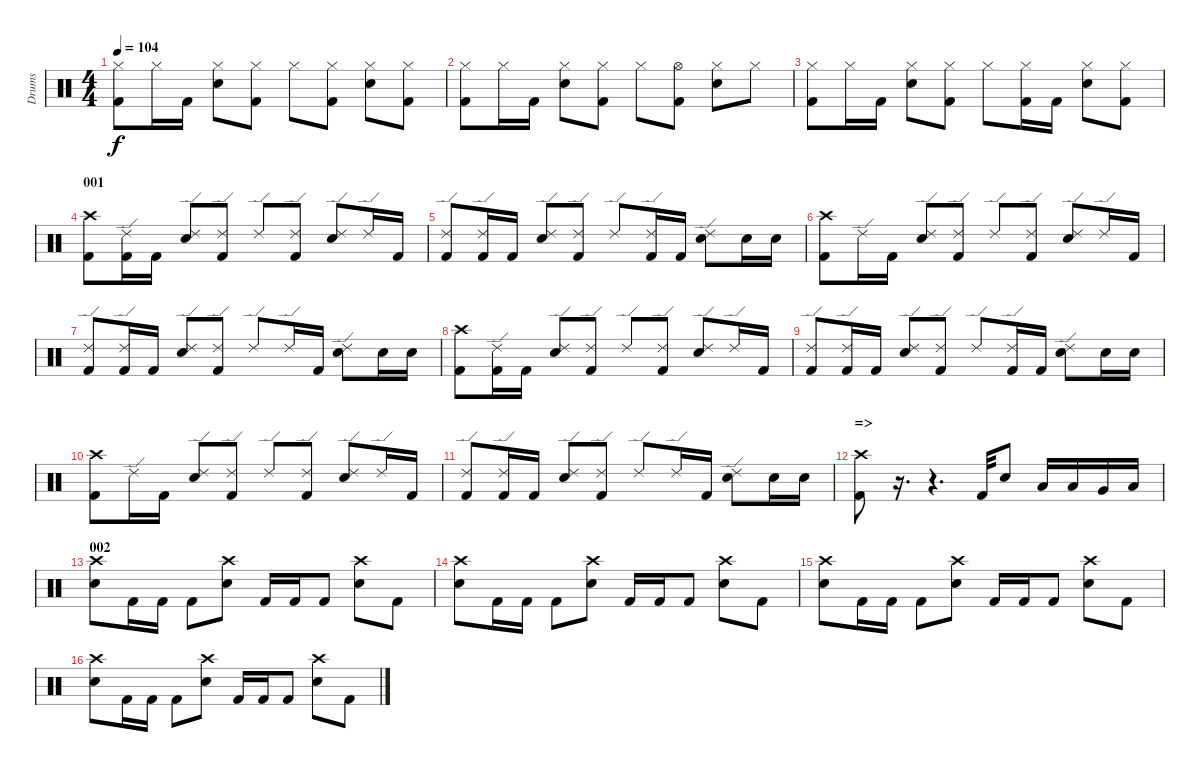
\track ("Drums" "Drums") {instrument percussion}
\staff {score}
\articulation defaults
\ts (4 4)
\tempo 104
\clef neutral
\ks c
("Hi-Hat (closed)" "Kick (hit) 2").8{dy f} "Hi-Hat (closed)".16 "Kick (hit) 2".16 ("Hi-Hat (closed)" "Electric Snare (hit)").8 ("Hi-Hat (closed)" "Kick (hit) 2").8 "Hi-Hat (closed)".8 ("Hi-Hat (closed)" "Kick (hit) 2").8 ("Hi-Hat (closed)" "Electric Snare (hit)").8 ("Hi-Hat (closed)" "Kick (hit) 2").8 |
("Hi-Hat (closed)" "Kick (hit) 2").8 "Hi-Hat (closed)".16 "Kick (hit) 2".16 ("Hi-Hat (closed)" "Electric Snare (hit)").8 ("Hi-Hat (closed)" "Kick (hit) 2").8 "Hi-Hat (closed)".8 ("Hi-Hat (open)" "Kick (hit) 2").8 ("Hi-Hat (closed)" "Electric Snare (hit)").8 "Hi-Hat (closed)".8 |
("Hi-Hat (closed)" "Kick (hit) 2").8 "Hi-Hat (closed)".16 "Kick (hit) 2".16 ("Hi-Hat (closed)" "Electric Snare (hit)").8 ("Hi-Hat (closed)" "Kick (hit) 2").8 "Hi-Hat (closed)".8 ("Hi-Hat (closed)" "Kick (hit) 2").16 "Kick (hit) 2".16 ("Hi-Hat (closed)" "Electric Snare (hit)").8 ("Hi-Hat (closed)" "Kick (hit) 2").8 |
\section ("" "001")
("Crash high (hit)" "Kick (hit) 2").8 ("Ride (edge) 2" "Kick (hit) 2").16 "Kick (hit) 2".16 ("Ride (edge) 2" "Electric Snare (hit)").8 ("Ride (edge) 2" "Kick (hit) 2").8 "Ride (edge) 2".8 ("Ride (edge) 2" "Kick (hit) 2").8 ("Ride (edge) 2" "Electric Snare (hit)").8 "Ride (edge) 2".16 "Kick (hit) 2".16 |
("Ride (edge) 2" "Kick (hit) 2").8 ("Ride (edge) 2" "Kick (hit) 2").16 "Kick (hit) 2".16 ("Ride (edge) 2" "Electric Snare (hit)").8 ("Ride (edge) 2" "Kick (hit) 2").8 "Ride (edge) 2".8 ("Ride (edge) 2" "Kick (hit) 2").16 "Kick (hit) 2".16 ("Ride (edge) 2" "Electric Snare (hit)").8 "Electric Snare (hit)".16 "Electric Snare (hit)".16 |
("Crash high (hit)" "Kick (hit) 2").8 "Ride (edge) 2".16 "Kick (hit) 2".16 ("Ride (edge) 2" "Electric Snare (hit)").8 ("Ride (edge) 2" "Kick (hit) 2").8 "Ride (edge) 2".8 ("Ride (edge) 2" "Kick (hit) 2").8 ("Ride (edge) 2" "Electric Snare (hit)").8 "Ride (edge) 2".16 "Kick (hit) 2".16 |
("Ride (edge) 2" "Kick (hit) 2").8 ("Ride (edge) 2" "Kick (hit) 2").16 "Kick (hit) 2".16 ("Ride (edge) 2" "Electric Snare (hit)").8 ("Ride (edge) 2" "Kick (hit) 2").8 "Ride (edge) 2".8 "Ride (edge) 2".16 "Kick (hit) 2".16 ("Ride (edge) 2" "Electric Snare (hit)").8 "Electric Snare (hit)".16 "Electric Snare (hit)".16 |
("Crash high (hit)" "Kick (hit) 2").8 ("Ride (edge) 2" "Kick (hit) 2").16 "Kick (hit) 2".16 ("Ride (edge) 2" "Electric Snare (hit)").8 ("Ride (edge) 2" "Kick (hit) 2").8 "Ride (edge) 2".8 ("Ride (edge) 2" "Kick (hit) 2").8 ("Ride (edge) 2" "Electric Snare (hit)").8 "Ride (edge) 2".16 "Kick (hit) 2".16 |
("Ride (edge) 2" "Kick (hit) 2").8 ("Ride (edge) 2" "Kick (hit) 2").16 "Kick (hit) 2".16 ("Ride (edge) 2" "Electric Snare (hit)").8 ("Ride (edge) 2" "Kick (hit) 2").8 "Ride (edge) 2".8 ("Ride (edge) 2" "Kick (hit) 2").16 "Kick (hit) 2".16 ("Ride (edge) 2" "Electric Snare (hit)").8 "Electric Snare (hit)".16 "Electric Snare (hit)".16 |
("Crash high (hit)" "Kick (hit) 2").8 "Ride (edge) 2".16 "Kick (hit) 2".16 ("Ride (edge) 2" "Electric Snare (hit)").8 ("Ride (edge) 2" "Kick (hit) 2").8 "Ride (edge) 2".8 ("Ride (edge) 2" "Kick (hit) 2").8 ("Ride (edge) 2" "Electric Snare (hit)").8 "Ride (edge) 2".16 "Kick (hit) 2".16 |
("Ride (edge) 2" "Kick (hit) 2").8 ("Ride (edge) 2" "Kick (hit) 2").16 "Kick (hit) 2".16 ("Ride (edge) 2" "Electric Snare (hit)").8 ("Ride (edge) 2" "Kick (hit) 2").8 "Ride (edge) 2".8 "Ride (edge) 2".16 "Kick (hit) 2".16 ("Ride (edge) 2" "Electric Snare (hit)").8 "Electric Snare (hit)".16 "Electric Snare (hit)".16 |
\section ("" "=>")
("Crash high (hit)" "Kick (hit) 2").8 r.16{d} r.4{d} "Kick (hit) 2".32 "Electric Snare (hit)".8 "Low Tom (hit)".16 "Low Tom (hit)".16 "Very Low Tom (hit)".16 "Low Floor Tom (hit)".16 |
\section ("" "002")
("Crash high (hit)" "Electric Snare (hit)").8 "Kick (hit) 2".16 "Kick (hit) 2".16 "Kick (hit) 2".8 ("Crash high (hit)" "Electric Snare (hit)").8 "Kick (hit) 2".16 "Kick (hit) 2".16 "Kick (hit) 2".8 ("Crash high (hit)" "Electric Snare (hit)").8 "Kick (hit) 2".8 |
("Crash high (hit)" "Electric Snare (hit)").8 "Kick (hit) 2".16 "Kick (hit) 2".16 "Kick (hit) 2".8 ("Crash high (hit)" "Electric Snare (hit)").8 "Kick (hit) 2".16 "Kick (hit) 2".16 "Kick (hit) 2".8 ("Crash high (hit)" "Electric Snare (hit)").8 "Kick (hit) 2".8 |
("Crash high (hit)" "Electric Snare (hit)").8 "Kick (hit) 2".16 "Kick (hit) 2".16 "Kick (hit) 2".8 ("Crash high (hit)" "Electric Snare (hit)").8 "Kick (hit) 2".16 "Kick (hit) 2".16 "Kick (hit) 2".8 ("Crash high (hit)" "Electric Snare (hit)").8 "Kick (hit) 2".8 |
("Crash high (hit)" "Electric Snare (hit)").8 "Kick (hit) 2".16 "Kick (hit) 2".16 "Kick (hit) 2".8 ("Crash high (hit)" "Electric Snare (hit)").8 "Kick (hit) 2".16 "Kick (hit) 2".16 "Kick (hit) 2".8 ("Crash high (hit)" "Electric Snare (hit)").8 "Kick (hit) 2".8
